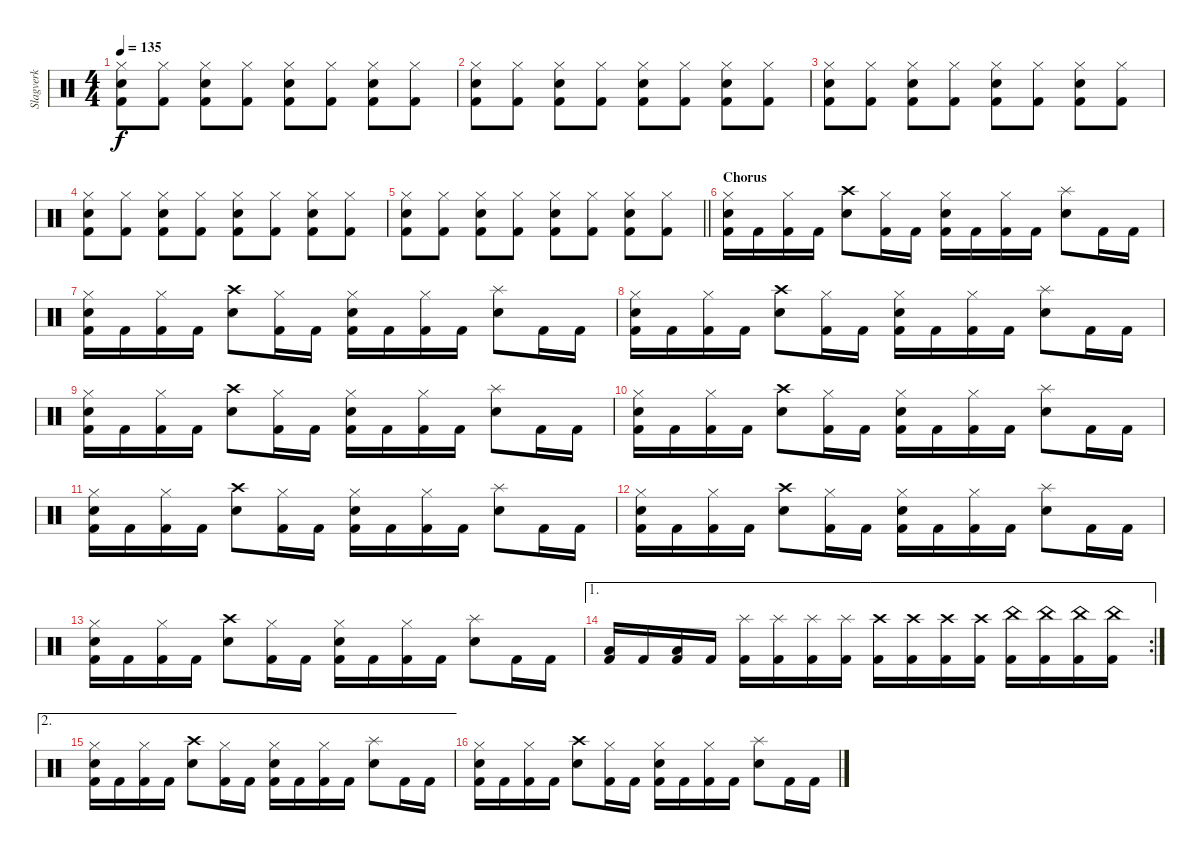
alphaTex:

\track ("Slagverk" "Slagverk") {instrument percussion}
\staff {score}
\articulation defaults
\ts (4 4)
\tempo 135
\clef neutral
\ks c
("Hi-Hat (closed)" "Snare (hit) 2" "Kick (hit) 2").8{dy f} ("Hi-Hat (closed)" "Kick (hit) 2").8 ("Hi-Hat (closed)" "Snare (hit) 2" "Kick (hit) 2").8 ("Hi-Hat (closed)" "Kick (hit) 2").8 ("Hi-Hat (closed)" "Snare (hit) 2" "Kick (hit) 2").8 ("Hi-Hat (closed)" "Kick (hit) 2").8 ("Hi-Hat (closed)" "Snare (hit) 2" "Kick (hit) 2").8 ("Hi-Hat (closed)" "Kick (hit) 2").8 |
("Hi-Hat (closed)" "Snare (hit) 2" "Kick (hit) 2").8 ("Hi-Hat (closed)" "Kick (hit) 2").8 ("Hi-Hat (closed)" "Snare (hit) 2" "Kick (hit) 2").8 ("Hi-Hat (closed)" "Kick (hit) 2").8 ("Hi-Hat (closed)" "Snare (hit) 2" "Kick (hit) 2").8 ("Hi-Hat (closed)" "Kick (hit) 2").8 ("Hi-Hat (closed)" "Snare (hit) 2" "Kick (hit) 2").8 ("Hi-Hat (closed)" "Kick (hit) 2").8 |
("Hi-Hat (closed)" "Snare (hit) 2" "Kick (hit) 2").8 ("Hi-Hat (closed)" "Kick (hit) 2").8 ("Hi-Hat (closed)" "Snare (hit) 2" "Kick (hit) 2").8 ("Hi-Hat (closed)" "Kick (hit) 2").8 ("Hi-Hat (closed)" "Snare (hit) 2" "Kick (hit) 2").8 ("Hi-Hat (closed)" "Kick (hit) 2").8 ("Hi-Hat (closed)" "Snare (hit) 2" "Kick (hit) 2").8 ("Hi-Hat (closed)" "Kick (hit) 2").8 |
("Hi-Hat (closed)" "Snare (hit) 2" "Kick (hit) 2").8 ("Hi-Hat (closed)" "Kick (hit) 2").8 ("Hi-Hat (closed)" "Snare (hit) 2" "Kick (hit) 2").8 ("Hi-Hat (closed)" "Kick (hit) 2").8 ("Hi-Hat (closed)" "Snare (hit) 2" "Kick (hit) 2").8 ("Hi-Hat (closed)" "Kick (hit) 2").8 ("Hi-Hat (closed)" "Snare (hit) 2" "Kick (hit) 2").8 ("Hi-Hat (closed)" "Kick (hit) 2").8 |
\barLineRight lightlight
("Hi-Hat (closed)" "Snare (hit) 2" "Kick (hit) 2").8 ("Hi-Hat (closed)" "Kick (hit) 2").8 ("Hi-Hat (closed)" "Snare (hit) 2" "Kick (hit) 2").8 ("Hi-Hat (closed)" "Kick (hit) 2").8 ("Hi-Hat (closed)" "Snare (hit) 2" "Kick (hit) 2").8 ("Hi-Hat (closed)" "Kick (hit) 2").8 ("Hi-Hat (closed)" "Snare (hit) 2" "Kick (hit) 2").8 ("Hi-Hat (closed)" "Kick (hit) 2").8 |
\section ("" "Chorus")
("Hi-Hat (closed)" "Snare (hit) 2" "Kick (hit) 2").16 "Kick (hit) 2".16 ("Hi-Hat (closed)" "Kick (hit) 2").16 "Kick (hit) 2".16 ("Crash high (hit)" "Snare (hit) 2").8 ("Hi-Hat (closed)" "Kick (hit) 2").16 "Kick (hit) 2".16 ("Hi-Hat (closed)" "Snare (hit) 2" "Kick (hit) 2").16 "Kick (hit) 2".16 ("Hi-Hat (closed)" "Kick (hit) 2").16 "Kick (hit) 2".16 ("Splash (hit)" "Snare (hit) 2").8 "Kick (hit) 2".16 "Kick (hit) 2".16 |
("Hi-Hat (closed)" "Snare (hit) 2" "Kick (hit) 2").16 "Kick (hit) 2".16 ("Hi-Hat (closed)" "Kick (hit) 2").16 "Kick (hit) 2".16 ("Crash high (hit)" "Snare (hit) 2").8 ("Hi-Hat (closed)" "Kick (hit) 2").16 "Kick (hit) 2".16 ("Hi-Hat (closed)" "Snare (hit) 2" "Kick (hit) 2").16 "Kick (hit) 2".16 ("Hi-Hat (closed)" "Kick (hit) 2").16 "Kick (hit) 2".16 ("Splash (hit)" "Snare (hit) 2").8 "Kick (hit) 2".16 "Kick (hit) 2".16 |
("Hi-Hat (closed)" "Snare (hit) 2" "Kick (hit) 2").16 "Kick (hit) 2".16 ("Hi-Hat (closed)" "Kick (hit) 2").16 "Kick (hit) 2".16 ("Crash high (hit)" "Snare (hit) 2").8 ("Hi-Hat (closed)" "Kick (hit) 2").16 "Kick (hit) 2".16 ("Hi-Hat (closed)" "Snare (hit) 2" "Kick (hit) 2").16 "Kick (hit) 2".16 ("Hi-Hat (closed)" "Kick (hit) 2").16 "Kick (hit) 2".16 ("Splash (hit)" "Snare (hit) 2").8 "Kick (hit) 2".16 "Kick (hit) 2".16 |
("Hi-Hat (closed)" "Snare (hit) 2" "Kick (hit) 2").16 "Kick (hit) 2".16 ("Hi-Hat (closed)" "Kick (hit) 2").16 "Kick (hit) 2".16 ("Crash high (hit)" "Snare (hit) 2").8 ("Hi-Hat (closed)" "Kick (hit) 2").16 "Kick (hit) 2".16 ("Hi-Hat (closed)" "Snare (hit) 2" "Kick (hit) 2").16 "Kick (hit) 2".16 ("Hi-Hat (closed)" "Kick (hit) 2").16 "Kick (hit) 2".16 ("Splash (hit)" "Snare (hit) 2").8 "Kick (hit) 2".16 "Kick (hit) 2".16 |
("Hi-Hat (closed)" "Snare (hit) 2" "Kick (hit) 2").16 "Kick (hit) 2".16 ("Hi-Hat (closed)" "Kick (hit) 2").16 "Kick (hit) 2".16 ("Crash high (hit)" "Snare (hit) 2").8 ("Hi-Hat (closed)" "Kick (hit) 2").16 "Kick (hit) 2".16 ("Hi-Hat (closed)" "Snare (hit) 2" "Kick (hit) 2").16 "Kick (hit) 2".16 ("Hi-Hat (closed)" "Kick (hit) 2").16 "Kick (hit) 2".16 ("Splash (hit)" "Snare (hit) 2").8 "Kick (hit) 2".16 "Kick (hit) 2".16 |
("Hi-Hat (closed)" "Snare (hit) 2" "Kick (hit) 2").16 "Kick (hit) 2".16 ("Hi-Hat (closed)" "Kick (hit) 2").16 "Kick (hit) 2".16 ("Crash high (hit)" "Snare (hit) 2").8 ("Hi-Hat (closed)" "Kick (hit) 2").16 "Kick (hit) 2".16 ("Hi-Hat (closed)" "Snare (hit) 2" "Kick (hit) 2").16 "Kick (hit) 2".16 ("Hi-Hat (closed)" "Kick (hit) 2").16 "Kick (hit) 2".16 ("Splash (hit)" "Snare (hit) 2").8 "Kick (hit) 2".16 "Kick (hit) 2".16 |
("Hi-Hat (closed)" "Snare (hit) 2" "Kick (hit) 2").16 "Kick (hit) 2".16 ("Hi-Hat (closed)" "Kick (hit) 2").16 "Kick (hit) 2".16 ("Crash high (hit)" "Snare (hit) 2").8 ("Hi-Hat (closed)" "Kick (hit) 2").16 "Kick (hit) 2".16 ("Hi-Hat (closed)" "Snare (hit) 2" "Kick (hit) 2").16 "Kick (hit) 2".16 ("Hi-Hat (closed)" "Kick (hit) 2").16 "Kick (hit) 2".16 ("Splash (hit)" "Snare (hit) 2").8 "Kick (hit) 2".16 "Kick (hit) 2".16 |
("Hi-Hat (closed)" "Snare (hit) 2" "Kick (hit) 2").16 "Kick (hit) 2".16 ("Hi-Hat (closed)" "Kick (hit) 2").16 "Kick (hit) 2".16 ("Crash high (hit)" "Snare (hit) 2").8 ("Hi-Hat (closed)" "Kick (hit) 2").16 "Kick (hit) 2".16 ("Hi-Hat (closed)" "Snare (hit) 2" "Kick (hit) 2").16 "Kick (hit) 2".16 ("Hi-Hat (closed)" "Kick (hit) 2").16 "Kick (hit) 2".16 ("Splash (hit)" "Snare (hit) 2").8 "Kick (hit) 2".16 "Kick (hit) 2".16 |
\ae 1
\rc 2
("Low Tom (hit)" "Kick (hit) 2").16 "Kick (hit) 2".16 ("Low Tom (hit)" "Kick (hit) 2").16 "Kick (hit) 2".16 ("Splash (hit)" "Kick (hit) 2").16 ("Splash (hit)" "Kick (hit) 2").16 ("Splash (hit)" "Kick (hit) 2").16 ("Splash (hit)" "Kick (hit) 2").16 ("Crash high (hit)" "Kick (hit) 2").16 ("Crash high (hit)" "Kick (hit) 2").16 ("Crash high (hit)" "Kick (hit) 2").16 ("Crash high (hit)" "Kick (hit) 2").16 ("China (hit)" "Kick (hit) 2").16 ("China (hit)" "Kick (hit) 2").16 ("China (hit)" "Kick (hit) 2").16 ("China (hit)" "Kick (hit) 2").16 |
\ae 2
("Hi-Hat (closed)" "Snare (hit) 2" "Kick (hit) 2").16 "Kick (hit) 2".16 ("Hi-Hat (closed)" "Kick (hit) 2").16 "Kick (hit) 2".16 ("Crash high (hit)" "Snare (hit) 2").8 ("Hi-Hat (closed)" "Kick (hit) 2").16 "Kick (hit) 2".16 ("Hi-Hat (closed)" "Snare (hit) 2" "Kick (hit) 2").16 "Kick (hit) 2".16 ("Hi-Hat (closed)" "Kick (hit) 2").16 "Kick (hit) 2".16 ("Splash (hit)" "Snare (hit) 2").8 "Kick (hit) 2".16 "Kick (hit) 2".16 |
("Hi-Hat (closed)" "Snare (hit) 2" "Kick (hit) 2").16 "Kick (hit) 2".16 ("Hi-Hat (closed)" "Kick (hit) 2").16 "Kick (hit) 2".16 ("Crash high (hit)" "Snare (hit) 2").8 ("Hi-Hat (closed)" "Kick (hit) 2").16 "Kick (hit) 2".16 ("Hi-Hat (closed)" "Snare (hit) 2" "Kick (hit) 2").16 "Kick (hit) 2".16 ("Hi-Hat (closed)" "Kick (hit) 2").16 "Kick (hit) 2".16 ("Splash (hit)" "Snare (hit) 2").8 "Kick (hit) 2".16 "Kick (hit) 2".16
